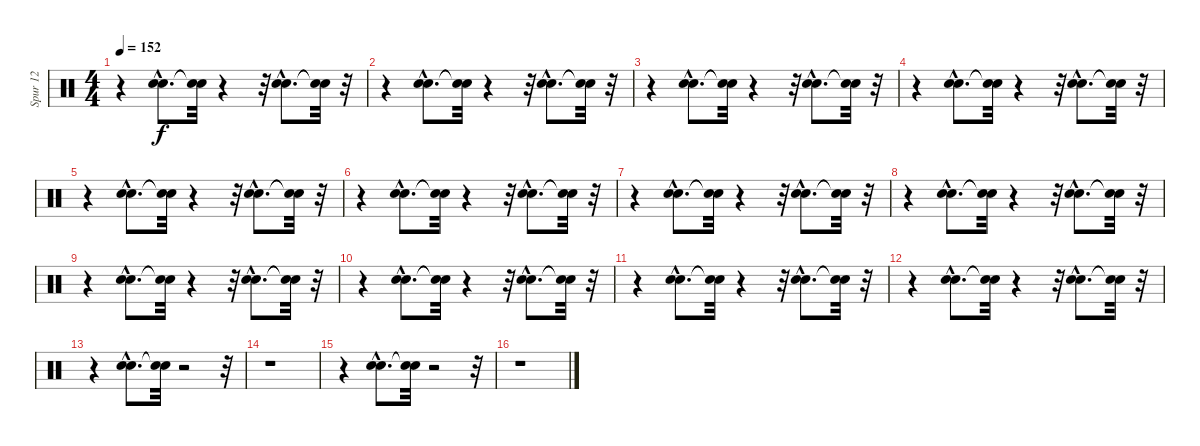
\track ("Spur 12" "Spur 12") {instrument percussion}
\staff {score}
\articulation defaults
\ts (4 4)
\tempo 152
\clef neutral
\ks c
r.4{dy f} ("Hand Clap (hit)"{hac} "Electric Snare (hit)"{hac}).8{d} ("Snare (hit)"{t} "Snare (hit)"{t}).32 r.4 r.32 ("Hand Clap (hit)"{hac} "Electric Snare (hit)"{hac}).8{d} ("Snare (hit)"{t} "Snare (hit)"{t}).32 r.32 |
r.4 ("Hand Clap (hit)"{hac} "Electric Snare (hit)"{hac}).8{d} ("Snare (hit)"{t} "Snare (hit)"{t}).32 r.4 r.32 ("Hand Clap (hit)"{hac} "Electric Snare (hit)"{hac}).8{d} ("Snare (hit)"{t} "Snare (hit)"{t}).32 r.32 |
r.4 ("Hand Clap (hit)"{hac} "Electric Snare (hit)"{hac}).8{d} ("Snare (hit)"{t} "Snare (hit)"{t}).32 r.4 r.32 ("Hand Clap (hit)"{hac} "Electric Snare (hit)"{hac}).8{d} ("Snare (hit)"{t} "Snare (hit)"{t}).32 r.32 |
r.4 ("Hand Clap (hit)"{hac} "Electric Snare (hit)"{hac}).8{d} ("Snare (hit)"{t} "Snare (hit)"{t}).32 r.4 r.32 ("Hand Clap (hit)"{hac} "Electric Snare (hit)"{hac}).8{d} ("Snare (hit)"{t} "Snare (hit)"{t}).32 r.32 |
r.4 ("Hand Clap (hit)"{hac} "Electric Snare (hit)"{hac}).8{d} ("Snare (hit)"{t} "Snare (hit)"{t}).32 r.4 r.32 ("Hand Clap (hit)"{hac} "Electric Snare (hit)"{hac}).8{d} ("Snare (hit)"{t} "Snare (hit)"{t}).32 r.32 |
r.4 ("Hand Clap (hit)"{hac} "Electric Snare (hit)"{hac}).8{d} ("Snare (hit)"{t} "Snare (hit)"{t}).32 r.4 r.32 ("Hand Clap (hit)"{hac} "Electric Snare (hit)"{hac}).8{d} ("Snare (hit)"{t} "Snare (hit)"{t}).32 r.32 |
r.4 ("Hand Clap (hit)"{hac} "Electric Snare (hit)"{hac}).8{d} ("Snare (hit)"{t} "Snare (hit)"{t}).32 r.4 r.32 ("Hand Clap (hit)"{hac} "Electric Snare (hit)"{hac}).8{d} ("Snare (hit)"{t} "Snare (hit)"{t}).32 r.32 |
r.4 ("Hand Clap (hit)"{hac} "Electric Snare (hit)"{hac}).8{d} ("Snare (hit)"{t} "Snare (hit)"{t}).32 r.4 r.32 ("Hand Clap (hit)"{hac} "Electric Snare (hit)"{hac}).8{d} ("Snare (hit)"{t} "Snare (hit)"{t}).32 r.32 |
r.4 ("Hand Clap (hit)"{hac} "Electric Snare (hit)"{hac}).8{d} ("Snare (hit)"{t} "Snare (hit)"{t}).32 r.4 r.32 ("Hand Clap (hit)"{hac} "Electric Snare (hit)"{hac}).8{d} ("Snare (hit)"{t} "Snare (hit)"{t}).32 r.32 |
r.4 ("Hand Clap (hit)"{hac} "Electric Snare (hit)"{hac}).8{d} ("Snare (hit)"{t} "Snare (hit)"{t}).32 r.4 r.32 ("Hand Clap (hit)"{hac} "Electric Snare (hit)"{hac}).8{d} ("Snare (hit)"{t} "Snare (hit)"{t}).32 r.32 |
r.4 ("Hand Clap (hit)"{hac} "Electric Snare (hit)"{hac}).8{d} ("Snare (hit)"{t} "Snare (hit)"{t}).32 r.4 r.32 ("Hand Clap (hit)"{hac} "Electric Snare (hit)"{hac}).8{d} ("Snare (hit)"{t} "Snare (hit)"{t}).32 r.32 |
r.4 ("Hand Clap (hit)"{hac} "Electric Snare (hit)"{hac}).8{d} ("Snare (hit)"{t} "Snare (hit)"{t}).32 r.4 r.32 ("Hand Clap (hit)"{hac} "Electric Snare (hit)"{hac}).8{d} ("Snare (hit)"{t} "Snare (hit)"{t}).32 r.32 |
r.4 ("Hand Clap (hit)"{hac} "Electric Snare (hit)"{hac}).8{d} ("Snare (hit)"{t} "Snare (hit)"{t}).32 r.2 r.32 |
r.1 |
r.4 ("Hand Clap (hit)"{hac} "Electric Snare (hit)"{hac}).8{d} ("Snare (hit)"{t} "Snare (hit)"{t}).32 r.2 r.32 |
r.1
